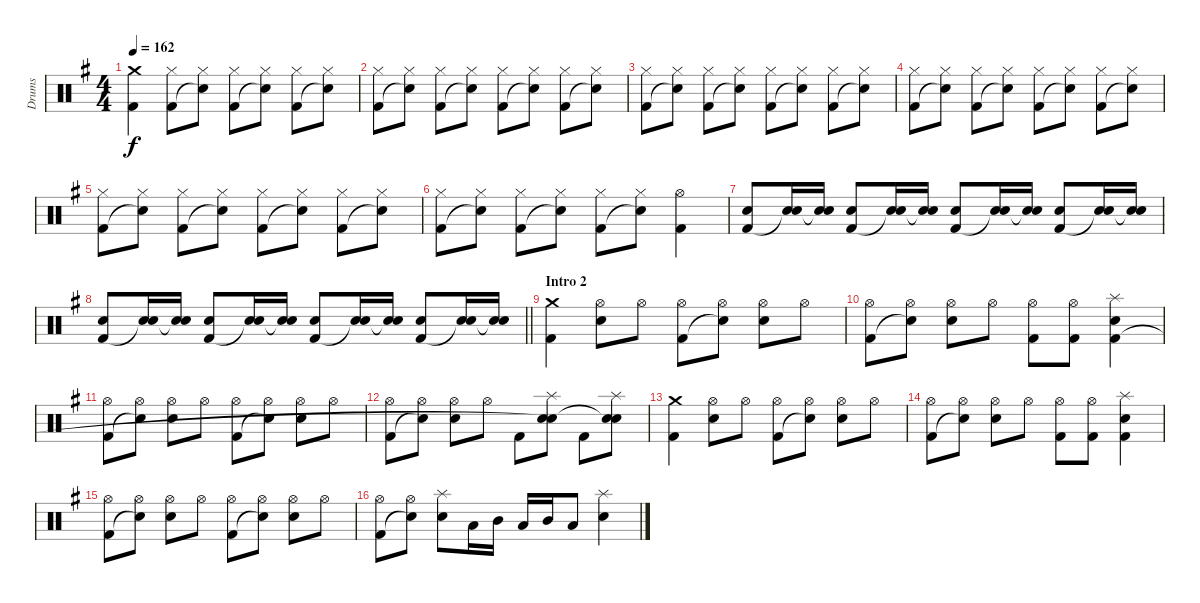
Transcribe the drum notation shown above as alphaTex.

\track ("Drums" "Drums") {instrument percussion}
\staff {score}
\articulation defaults
\ts (4 4)
\tempo 162
\clef neutral
\ks g
("Crash medium (hit)" "Kick (hit) 2").4{dy f} ("Hi-Hat (closed)" "Kick (hit) 2").8 ("Hi-Hat (closed)" "Snare (hit)"{t}).8 ("Hi-Hat (closed)" "Kick (hit) 2").8 ("Hi-Hat (closed)" "Snare (hit)"{t}).8 ("Hi-Hat (closed)" "Kick (hit) 2").8 ("Hi-Hat (closed)" "Snare (hit)"{t}).8 |
("Hi-Hat (closed)" "Kick (hit) 2").8 ("Hi-Hat (closed)" "Snare (hit)"{t}).8 ("Hi-Hat (closed)" "Kick (hit) 2").8 ("Hi-Hat (closed)" "Snare (hit)"{t}).8 ("Hi-Hat (closed)" "Kick (hit) 2").8 ("Hi-Hat (closed)" "Snare (hit)"{t}).8 ("Hi-Hat (closed)" "Kick (hit) 2").8 ("Hi-Hat (closed)" "Snare (hit)"{t}).8 |
("Hi-Hat (closed)" "Kick (hit) 2").8 ("Hi-Hat (closed)" "Snare (hit)"{t}).8 ("Hi-Hat (closed)" "Kick (hit) 2").8 ("Hi-Hat (closed)" "Snare (hit)"{t}).8 ("Hi-Hat (closed)" "Kick (hit) 2").8 ("Hi-Hat (closed)" "Snare (hit)"{t}).8 ("Hi-Hat (closed)" "Kick (hit) 2").8 ("Hi-Hat (closed)" "Snare (hit)"{t}).8 |
("Hi-Hat (closed)" "Kick (hit) 2").8 ("Hi-Hat (closed)" "Snare (hit)"{t}).8 ("Hi-Hat (closed)" "Kick (hit) 2").8 ("Hi-Hat (closed)" "Snare (hit)"{t}).8 ("Hi-Hat (closed)" "Kick (hit) 2").8 ("Hi-Hat (closed)" "Snare (hit)"{t}).8 ("Hi-Hat (closed)" "Kick (hit) 2").8 ("Hi-Hat (closed)" "Snare (hit)"{t}).8 |
("Hi-Hat (closed)" "Kick (hit) 2").8 ("Hi-Hat (closed)" "Snare (hit)"{t}).8 ("Hi-Hat (closed)" "Kick (hit) 2").8 ("Hi-Hat (closed)" "Snare (hit)"{t}).8 ("Hi-Hat (closed)" "Kick (hit) 2").8 ("Hi-Hat (closed)" "Snare (hit)"{t}).8 ("Hi-Hat (closed)" "Kick (hit) 2").8 ("Hi-Hat (closed)" "Snare (hit)"{t}).8 |
("Hi-Hat (closed)" "Kick (hit) 2").8 ("Hi-Hat (closed)" "Snare (hit)"{t}).8 ("Hi-Hat (closed)" "Kick (hit) 2").8 ("Hi-Hat (closed)" "Snare (hit)"{t}).8 ("Hi-Hat (closed)" "Kick (hit) 2").8 ("Hi-Hat (closed)" "Snare (hit)"{t}).8 ("Hi-Hat (open)" "Kick (hit) 2").4 |
("Electric Snare (hit)" "Kick (hit) 2").8 ("Electric Snare (hit)" "Snare (hit)"{t}).16 ("Electric Snare (hit)" "Snare (hit)"{t}).16 ("Electric Snare (hit)" "Kick (hit) 2").8 ("Electric Snare (hit)" "Snare (hit)"{t}).16 ("Electric Snare (hit)" "Snare (hit)"{t}).16 ("Electric Snare (hit)" "Kick (hit) 2").8 ("Electric Snare (hit)" "Snare (hit)"{t}).16 ("Electric Snare (hit)" "Snare (hit)"{t}).16 ("Electric Snare (hit)" "Kick (hit) 2").8 ("Electric Snare (hit)" "Snare (hit)"{t}).16 ("Electric Snare (hit)" "Snare (hit)"{t}).16 |
\barLineRight lightlight
("Electric Snare (hit)" "Kick (hit) 2").8 ("Electric Snare (hit)" "Snare (hit)"{t}).16 ("Electric Snare (hit)" "Snare (hit)"{t}).16 ("Electric Snare (hit)" "Kick (hit) 2").8 ("Electric Snare (hit)" "Snare (hit)"{t}).16 ("Electric Snare (hit)" "Snare (hit)"{t}).16 ("Electric Snare (hit)" "Kick (hit) 2").8 ("Electric Snare (hit)" "Snare (hit)"{t}).16 ("Electric Snare (hit)" "Snare (hit)"{t}).16 ("Electric Snare (hit)" "Kick (hit) 2").8 ("Electric Snare (hit)" "Snare (hit)"{t}).16 ("Electric Snare (hit)" "Snare (hit)"{t}).16 |
\section ("" "Intro 2")
("Crash medium (hit)" "Kick (hit) 2").4 ("Hi-Hat (open)" "Electric Snare (hit)").8 "Hi-Hat (open)".8 ("Hi-Hat (open)" "Kick (hit) 2").8 ("Hi-Hat (open)" "Snare (hit)"{t}).8 ("Hi-Hat (open)" "Electric Snare (hit)").8 "Hi-Hat (open)".8 |
("Hi-Hat (open)" "Kick (hit) 2").8 ("Hi-Hat (open)" "Snare (hit)"{t}).8 ("Hi-Hat (open)" "Electric Snare (hit)").8 "Hi-Hat (open)".8 ("Hi-Hat (open)" "Kick (hit) 2").8 ("Hi-Hat (open)" "Kick (hit) 2").8 ("Splash (hit)" "Electric Snare (hit)" "Kick (hit) 2").4 |
("Hi-Hat (open)" "Kick (hit) 2").8 ("Hi-Hat (open)" "Snare (hit)"{t}).8 ("Hi-Hat (open)" "Electric Snare (hit)").8 "Hi-Hat (open)".8 ("Hi-Hat (open)" "Kick (hit) 2").8 ("Hi-Hat (open)" "Snare (hit)"{t}).8 ("Hi-Hat (open)" "Electric Snare (hit)").8 "Hi-Hat (open)".8 |
("Hi-Hat (open)" "Kick (hit) 2").8 ("Hi-Hat (open)" "Snare (hit)"{t}).8 ("Hi-Hat (open)" "Electric Snare (hit)").8 "Hi-Hat (open)".8 "Kick (hit) 2".8 ("Splash (hit)" "Electric Snare (hit)" "Snare (hit)"{t}).8 "Kick (hit) 2".8 ("Splash (hit)" "Electric Snare (hit)" "Snare (hit)"{t}).8 |
("Crash medium (hit)" "Kick (hit) 2").4 ("Hi-Hat (open)" "Electric Snare (hit)").8 "Hi-Hat (open)".8 ("Hi-Hat (open)" "Kick (hit) 2").8 ("Hi-Hat (open)" "Snare (hit)"{t}).8 ("Hi-Hat (open)" "Electric Snare (hit)").8 "Hi-Hat (open)".8 |
("Hi-Hat (open)" "Kick (hit) 2").8 ("Hi-Hat (open)" "Snare (hit)"{t}).8 ("Hi-Hat (open)" "Electric Snare (hit)").8 "Hi-Hat (open)".8 ("Hi-Hat (open)" "Kick (hit) 2").8 ("Hi-Hat (open)" "Kick (hit) 2").8 ("Splash (hit)" "Electric Snare (hit)" "Kick (hit) 2").4 |
("Hi-Hat (open)" "Kick (hit) 2").8 ("Hi-Hat (open)" "Snare (hit)"{t}).8 ("Hi-Hat (open)" "Electric Snare (hit)").8 "Hi-Hat (open)".8 ("Hi-Hat (open)" "Kick (hit) 2").8 ("Hi-Hat (open)" "Snare (hit)"{t}).8 ("Hi-Hat (open)" "Electric Snare (hit)").8 "Hi-Hat (open)".8 |
("Hi-Hat (open)" "Kick (hit) 2").8 ("Hi-Hat (open)" "Snare (hit)"{t}).8 ("Splash (hit)" "Electric Snare (hit)").8 "Low Tom (hit)".16 "Mid Tom (hit)".16 "Low Tom (hit)".16 "Mid Tom (hit)".16 "Low Tom (hit)".8 ("Splash (hit)" "Electric Snare (hit)").4
